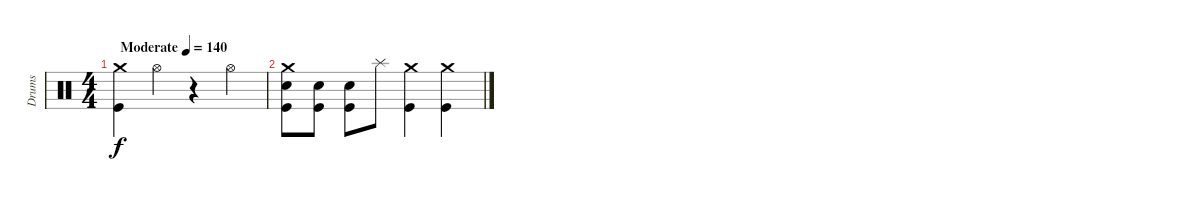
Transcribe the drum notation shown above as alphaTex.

\track ("Drums" "Drums") {instrument percussion}
\staff {score}
\articulation defaults
\ts (4 4)
\tempo (140 "Moderate")
\clef neutral
\ks c
("Crash medium (hit)" "Kick (hit)").4{dy f} "Hi-Hat (open)".4 r.4 "Hi-Hat (open)".4 |
("Crash medium (hit)" "Snare (hit) 2" "Kick (hit)").8 ("Snare (hit) 2" "Kick (hit)").8 ("Snare (hit) 2" "Kick (hit)").8 "Splash (hit)".8 ("Crash medium (hit)" "Kick (hit)").4 ("Crash medium (hit)" "Kick (hit)").4
